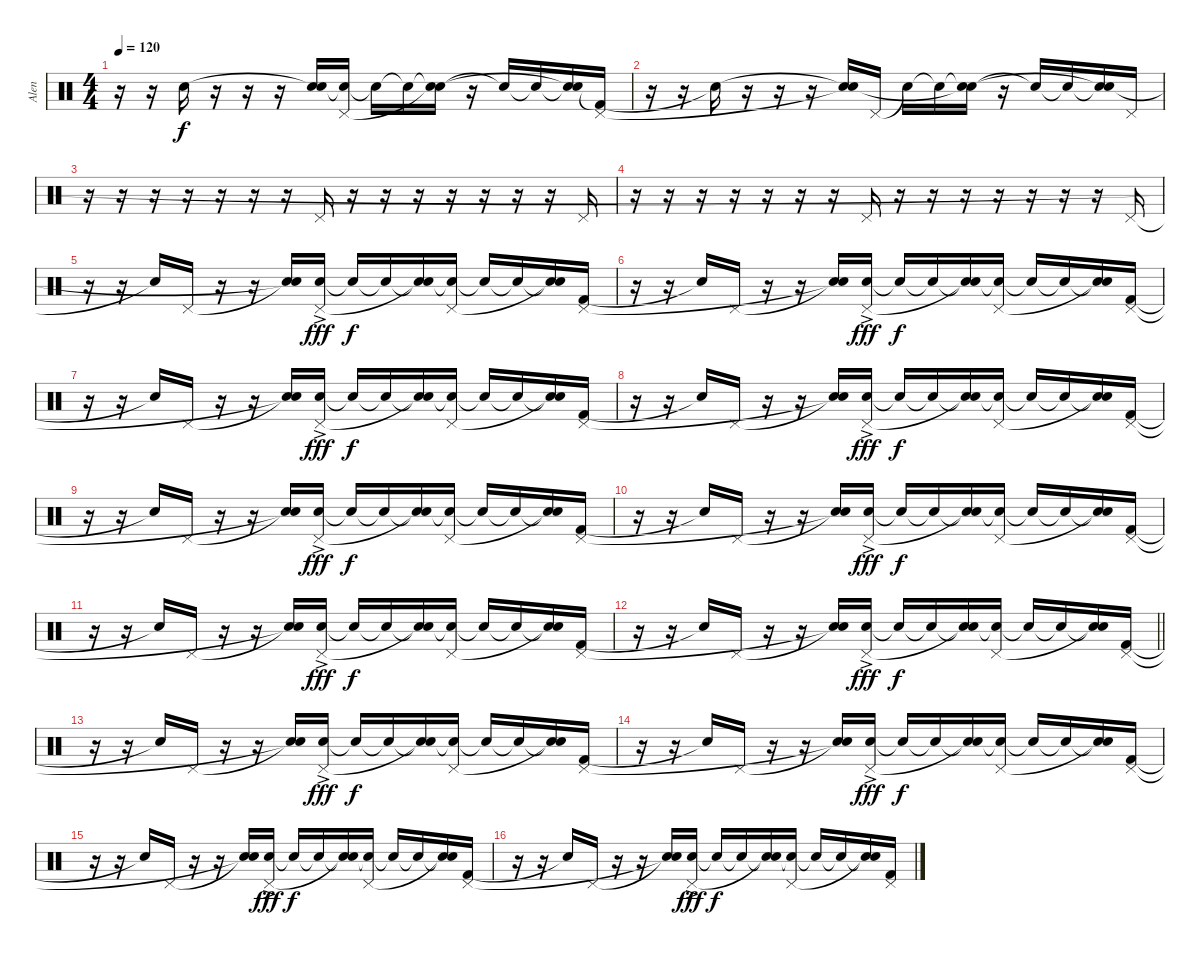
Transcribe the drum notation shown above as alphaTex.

\track ("Alen" "Alen") {instrument percussion}
\staff {score}
\articulation defaults
\ts (4 4)
\tempo 120
\clef neutral
\ks c
r.16{dy f} r.16 "Snare (hit)"{t}.16 r.16 r.16 r.16 ("Snare (hit)"{t} "Snare (hit)"{t}).16 ("Snare (hit) 2"{t} "Pedal Hi-Hat (hit)").16 "Snare (hit)"{t}.16 "Snare (hit)"{t}.16 ("Snare (hit)"{t} "Snare (hit)"{t}).16 r.16 "Snare (hit)"{t}.16 "Snare (hit)"{t}.16 ("Snare (hit)"{t} "Snare (hit)"{t}).16 ("Kick (hit) 2"{t} "Pedal Hi-Hat (hit)").16 |
r.16 r.16 "Snare (hit)"{t}.16 r.16 r.16 r.16 ("Snare (hit)"{t} "Snare (hit)"{t}).16 "Pedal Hi-Hat (hit)".16 "Snare (hit)"{t}.16 "Snare (hit)"{t}.16 ("Snare (hit)"{t} "Snare (hit)"{t}).16 r.16 "Snare (hit)"{t}.16 "Snare (hit)"{t}.16 ("Snare (hit)"{t} "Snare (hit)"{t}).16 "Pedal Hi-Hat (hit)".16 |
r.16 r.16 r.16 r.16 r.16 r.16 r.16 "Pedal Hi-Hat (hit)".16 r.16 r.16 r.16 r.16 r.16 r.16 r.16 "Pedal Hi-Hat (hit)".16 |
r.16 r.16 r.16 r.16 r.16 r.16 r.16 "Pedal Hi-Hat (hit)".16 r.16 r.16 r.16 r.16 r.16 r.16 r.16 "Pedal Hi-Hat (hit)".16 |
r.16 r.16 "Snare (hit)"{t}.16 "Pedal Hi-Hat (hit)".16 r.16 r.16 ("Snare (hit)"{t} "Snare (hit)"{t}).16 ("Snare (hit) 2"{ac} "Pedal Hi-Hat (hit)").16{dy fff} "Snare (hit)"{t}.16{dy f} "Snare (hit)"{t}.16 ("Snare (hit)"{t} "Snare (hit)"{t}).16 ("Snare (hit)"{t} "Pedal Hi-Hat (hit)").16 "Snare (hit)"{t}.16 "Snare (hit)"{t}.16 ("Snare (hit)"{t} "Snare (hit)"{t}).16 ("Kick (hit) 2" "Pedal Hi-Hat (hit)").16 |
r.16 r.16 "Snare (hit)"{t}.16 "Pedal Hi-Hat (hit)".16 r.16 r.16 ("Snare (hit)"{t} "Snare (hit)"{t}).16 ("Snare (hit) 2"{ac} "Pedal Hi-Hat (hit)").16{dy fff} "Snare (hit)"{t}.16{dy f} "Snare (hit)"{t}.16 ("Snare (hit)"{t} "Snare (hit)"{t}).16 ("Snare (hit)"{t} "Pedal Hi-Hat (hit)").16 "Snare (hit)"{t}.16 "Snare (hit)"{t}.16 ("Snare (hit)"{t} "Snare (hit)"{t}).16 ("Kick (hit) 2" "Pedal Hi-Hat (hit)").16 |
r.16 r.16 "Snare (hit)"{t}.16 "Pedal Hi-Hat (hit)".16 r.16 r.16 ("Snare (hit)"{t} "Snare (hit)"{t}).16 ("Snare (hit) 2"{ac} "Pedal Hi-Hat (hit)").16{dy fff} "Snare (hit)"{t}.16{dy f} "Snare (hit)"{t}.16 ("Snare (hit)"{t} "Snare (hit)"{t}).16 ("Snare (hit)"{t} "Pedal Hi-Hat (hit)").16 "Snare (hit)"{t}.16 "Snare (hit)"{t}.16 ("Snare (hit)"{t} "Snare (hit)"{t}).16 ("Kick (hit) 2" "Pedal Hi-Hat (hit)").16 |
r.16 r.16 "Snare (hit)"{t}.16 "Pedal Hi-Hat (hit)".16 r.16 r.16 ("Snare (hit)"{t} "Snare (hit)"{t}).16 ("Snare (hit) 2"{ac} "Pedal Hi-Hat (hit)").16{dy fff} "Snare (hit)"{t}.16{dy f} "Snare (hit)"{t}.16 ("Snare (hit)"{t} "Snare (hit)"{t}).16 ("Snare (hit)"{t} "Pedal Hi-Hat (hit)").16 "Snare (hit)"{t}.16 "Snare (hit)"{t}.16 ("Snare (hit)"{t} "Snare (hit)"{t}).16 ("Kick (hit) 2" "Pedal Hi-Hat (hit)").16 |
r.16 r.16 "Snare (hit)"{t}.16 "Pedal Hi-Hat (hit)".16 r.16 r.16 ("Snare (hit)"{t} "Snare (hit)"{t}).16 ("Snare (hit) 2"{ac} "Pedal Hi-Hat (hit)").16{dy fff} "Snare (hit)"{t}.16{dy f} "Snare (hit)"{t}.16 ("Snare (hit)"{t} "Snare (hit)"{t}).16 ("Snare (hit)"{t} "Pedal Hi-Hat (hit)").16 "Snare (hit)"{t}.16 "Snare (hit)"{t}.16 ("Snare (hit)"{t} "Snare (hit)"{t}).16 ("Kick (hit) 2" "Pedal Hi-Hat (hit)").16 |
r.16 r.16 "Snare (hit)"{t}.16 "Pedal Hi-Hat (hit)".16 r.16 r.16 ("Snare (hit)"{t} "Snare (hit)"{t}).16 ("Snare (hit) 2"{ac} "Pedal Hi-Hat (hit)").16{dy fff} "Snare (hit)"{t}.16{dy f} "Snare (hit)"{t}.16 ("Snare (hit)"{t} "Snare (hit)"{t}).16 ("Snare (hit)"{t} "Pedal Hi-Hat (hit)").16 "Snare (hit)"{t}.16 "Snare (hit)"{t}.16 ("Snare (hit)"{t} "Snare (hit)"{t}).16 ("Kick (hit) 2" "Pedal Hi-Hat (hit)").16 |
r.16 r.16 "Snare (hit)"{t}.16 "Pedal Hi-Hat (hit)".16 r.16 r.16 ("Snare (hit)"{t} "Snare (hit)"{t}).16 ("Snare (hit) 2"{ac} "Pedal Hi-Hat (hit)").16{dy fff} "Snare (hit)"{t}.16{dy f} "Snare (hit)"{t}.16 ("Snare (hit)"{t} "Snare (hit)"{t}).16 ("Snare (hit)"{t} "Pedal Hi-Hat (hit)").16 "Snare (hit)"{t}.16 "Snare (hit)"{t}.16 ("Snare (hit)"{t} "Snare (hit)"{t}).16 ("Kick (hit) 2" "Pedal Hi-Hat (hit)").16 |
\barLineRight lightlight
r.16 r.16 "Snare (hit)"{t}.16 "Pedal Hi-Hat (hit)".16 r.16 r.16 ("Snare (hit)"{t} "Snare (hit)"{t}).16 ("Snare (hit) 2"{ac} "Pedal Hi-Hat (hit)").16{dy fff} "Snare (hit)"{t}.16{dy f} "Snare (hit)"{t}.16 ("Snare (hit)"{t} "Snare (hit)"{t}).16 ("Snare (hit)"{t} "Pedal Hi-Hat (hit)").16 "Snare (hit)"{t}.16 "Snare (hit)"{t}.16 ("Snare (hit)"{t} "Snare (hit)"{t}).16 ("Kick (hit) 2" "Pedal Hi-Hat (hit)").16 |
r.16 r.16 "Snare (hit)"{t}.16 "Pedal Hi-Hat (hit)".16 r.16 r.16 ("Snare (hit)"{t} "Snare (hit)"{t}).16 ("Snare (hit) 2"{ac} "Pedal Hi-Hat (hit)").16{dy fff} "Snare (hit)"{t}.16{dy f} "Snare (hit)"{t}.16 ("Snare (hit)"{t} "Snare (hit)"{t}).16 ("Snare (hit)"{t} "Pedal Hi-Hat (hit)").16 "Snare (hit)"{t}.16 "Snare (hit)"{t}.16 ("Snare (hit)"{t} "Snare (hit)"{t}).16 ("Kick (hit) 2" "Pedal Hi-Hat (hit)").16 |
r.16 r.16 "Snare (hit)"{t}.16 "Pedal Hi-Hat (hit)".16 r.16 r.16 ("Snare (hit)"{t} "Snare (hit)"{t}).16 ("Snare (hit) 2"{ac} "Pedal Hi-Hat (hit)").16{dy fff} "Snare (hit)"{t}.16{dy f} "Snare (hit)"{t}.16 ("Snare (hit)"{t} "Snare (hit)"{t}).16 ("Snare (hit)"{t} "Pedal Hi-Hat (hit)").16 "Snare (hit)"{t}.16 "Snare (hit)"{t}.16 ("Snare (hit)"{t} "Snare (hit)"{t}).16 ("Kick (hit) 2" "Pedal Hi-Hat (hit)").16 |
r.16 r.16 "Snare (hit)"{t}.16 "Pedal Hi-Hat (hit)".16 r.16 r.16 ("Snare (hit)"{t} "Snare (hit)"{t}).16 ("Snare (hit) 2"{ac} "Pedal Hi-Hat (hit)").16{dy fff} "Snare (hit)"{t}.16{dy f} "Snare (hit)"{t}.16 ("Snare (hit)"{t} "Snare (hit)"{t}).16 ("Snare (hit)"{t} "Pedal Hi-Hat (hit)").16 "Snare (hit)"{t}.16 "Snare (hit)"{t}.16 ("Snare (hit)"{t} "Snare (hit)"{t}).16 ("Kick (hit) 2" "Pedal Hi-Hat (hit)").16 |
r.16 r.16 "Snare (hit)"{t}.16 "Pedal Hi-Hat (hit)".16 r.16 r.16 ("Snare (hit)"{t} "Snare (hit)"{t}).16 ("Snare (hit) 2"{ac} "Pedal Hi-Hat (hit)").16{dy fff} "Snare (hit)"{t}.16{dy f} "Snare (hit)"{t}.16 ("Snare (hit)"{t} "Snare (hit)"{t}).16 ("Snare (hit)"{t} "Pedal Hi-Hat (hit)").16 "Snare (hit)"{t}.16 "Snare (hit)"{t}.16 ("Snare (hit)"{t} "Snare (hit)"{t}).16 ("Kick (hit) 2" "Pedal Hi-Hat (hit)").16
